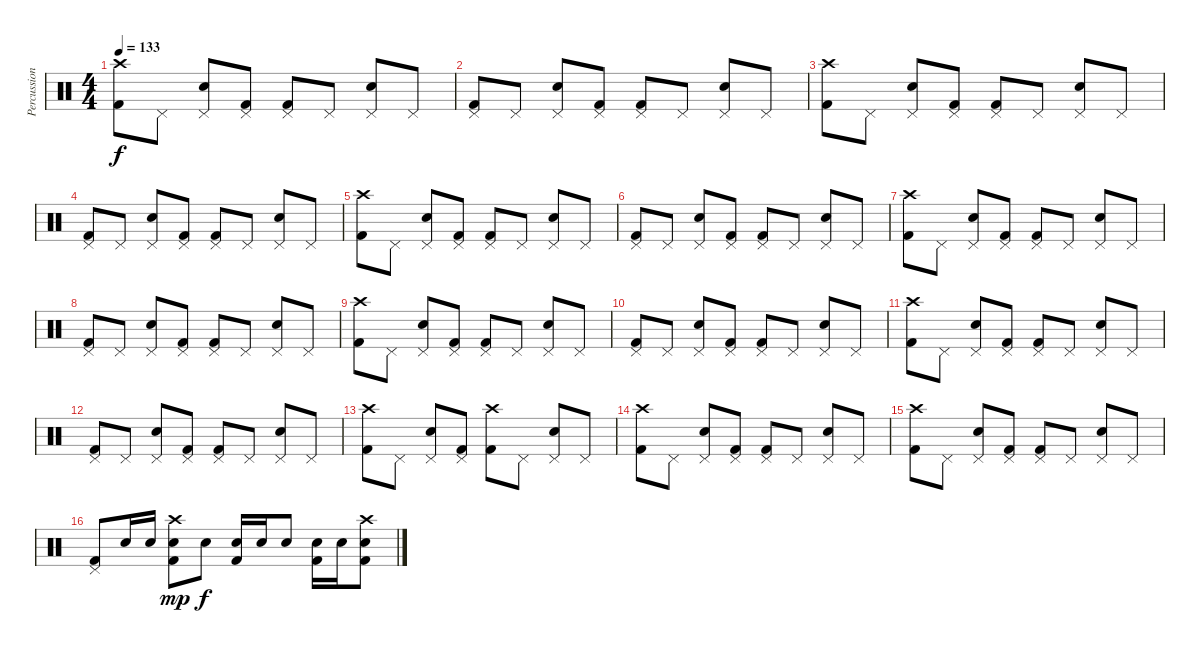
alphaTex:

\track ("Percussions" "Percussion") {instrument percussion}
\staff {score}
\articulation defaults
\ts (4 4)
\tempo 133
\clef neutral
\ks c
("Crash high (hit)" "Kick (hit) 2").8{dy f} "Pedal Hi-Hat (hit)".8 ("Pedal Hi-Hat (hit)" "Snare (hit) 2").8 ("Pedal Hi-Hat (hit)" "Kick (hit) 2").8 ("Pedal Hi-Hat (hit)" "Kick (hit) 2").8 "Pedal Hi-Hat (hit)".8 ("Pedal Hi-Hat (hit)" "Snare (hit) 2").8 "Pedal Hi-Hat (hit)".8 |
("Pedal Hi-Hat (hit)" "Kick (hit) 2").8 "Pedal Hi-Hat (hit)".8 ("Pedal Hi-Hat (hit)" "Snare (hit) 2").8 ("Pedal Hi-Hat (hit)" "Kick (hit) 2").8 ("Pedal Hi-Hat (hit)" "Kick (hit) 2").8 "Pedal Hi-Hat (hit)".8 ("Pedal Hi-Hat (hit)" "Snare (hit) 2").8 "Pedal Hi-Hat (hit)".8 |
("Crash high (hit)" "Kick (hit) 2").8 "Pedal Hi-Hat (hit)".8 ("Pedal Hi-Hat (hit)" "Snare (hit) 2").8 ("Pedal Hi-Hat (hit)" "Kick (hit) 2").8 ("Pedal Hi-Hat (hit)" "Kick (hit) 2").8 "Pedal Hi-Hat (hit)".8 ("Pedal Hi-Hat (hit)" "Snare (hit) 2").8 "Pedal Hi-Hat (hit)".8 |
("Pedal Hi-Hat (hit)" "Kick (hit) 2").8 "Pedal Hi-Hat (hit)".8 ("Pedal Hi-Hat (hit)" "Snare (hit) 2").8 ("Pedal Hi-Hat (hit)" "Kick (hit) 2").8 ("Pedal Hi-Hat (hit)" "Kick (hit) 2").8 "Pedal Hi-Hat (hit)".8 ("Pedal Hi-Hat (hit)" "Snare (hit) 2").8 "Pedal Hi-Hat (hit)".8 |
("Crash high (hit)" "Kick (hit) 2").8 "Pedal Hi-Hat (hit)".8 ("Pedal Hi-Hat (hit)" "Snare (hit) 2").8 ("Pedal Hi-Hat (hit)" "Kick (hit) 2").8 ("Pedal Hi-Hat (hit)" "Kick (hit) 2").8 "Pedal Hi-Hat (hit)".8 ("Pedal Hi-Hat (hit)" "Snare (hit) 2").8 "Pedal Hi-Hat (hit)".8 |
("Pedal Hi-Hat (hit)" "Kick (hit) 2").8 "Pedal Hi-Hat (hit)".8 ("Pedal Hi-Hat (hit)" "Snare (hit) 2").8 ("Pedal Hi-Hat (hit)" "Kick (hit) 2").8 ("Pedal Hi-Hat (hit)" "Kick (hit) 2").8 "Pedal Hi-Hat (hit)".8 ("Pedal Hi-Hat (hit)" "Snare (hit) 2").8 "Pedal Hi-Hat (hit)".8 |
("Crash high (hit)" "Kick (hit) 2").8 "Pedal Hi-Hat (hit)".8 ("Pedal Hi-Hat (hit)" "Snare (hit) 2").8 ("Pedal Hi-Hat (hit)" "Kick (hit) 2").8 ("Pedal Hi-Hat (hit)" "Kick (hit) 2").8 "Pedal Hi-Hat (hit)".8 ("Pedal Hi-Hat (hit)" "Snare (hit) 2").8 "Pedal Hi-Hat (hit)".8 |
("Pedal Hi-Hat (hit)" "Kick (hit) 2").8 "Pedal Hi-Hat (hit)".8 ("Pedal Hi-Hat (hit)" "Snare (hit) 2").8 ("Pedal Hi-Hat (hit)" "Kick (hit) 2").8 ("Pedal Hi-Hat (hit)" "Kick (hit) 2").8 "Pedal Hi-Hat (hit)".8 ("Pedal Hi-Hat (hit)" "Snare (hit) 2").8 "Pedal Hi-Hat (hit)".8 |
("Crash high (hit)" "Kick (hit) 2").8 "Pedal Hi-Hat (hit)".8 ("Pedal Hi-Hat (hit)" "Snare (hit) 2").8 ("Pedal Hi-Hat (hit)" "Kick (hit) 2").8 ("Pedal Hi-Hat (hit)" "Kick (hit) 2").8 "Pedal Hi-Hat (hit)".8 ("Pedal Hi-Hat (hit)" "Snare (hit) 2").8 "Pedal Hi-Hat (hit)".8 |
("Pedal Hi-Hat (hit)" "Kick (hit) 2").8 "Pedal Hi-Hat (hit)".8 ("Pedal Hi-Hat (hit)" "Snare (hit) 2").8 ("Pedal Hi-Hat (hit)" "Kick (hit) 2").8 ("Pedal Hi-Hat (hit)" "Kick (hit) 2").8 "Pedal Hi-Hat (hit)".8 ("Pedal Hi-Hat (hit)" "Snare (hit) 2").8 "Pedal Hi-Hat (hit)".8 |
("Crash high (hit)" "Kick (hit) 2").8 "Pedal Hi-Hat (hit)".8 ("Pedal Hi-Hat (hit)" "Snare (hit) 2").8 ("Pedal Hi-Hat (hit)" "Kick (hit) 2").8 ("Pedal Hi-Hat (hit)" "Kick (hit) 2").8 "Pedal Hi-Hat (hit)".8 ("Pedal Hi-Hat (hit)" "Snare (hit) 2").8 "Pedal Hi-Hat (hit)".8 |
("Pedal Hi-Hat (hit)" "Kick (hit) 2").8 "Pedal Hi-Hat (hit)".8 ("Pedal Hi-Hat (hit)" "Snare (hit) 2").8 ("Pedal Hi-Hat (hit)" "Kick (hit) 2").8 ("Pedal Hi-Hat (hit)" "Kick (hit) 2").8 "Pedal Hi-Hat (hit)".8 ("Pedal Hi-Hat (hit)" "Snare (hit) 2").8 "Pedal Hi-Hat (hit)".8 |
("Crash high (hit)" "Kick (hit) 2").8 "Pedal Hi-Hat (hit)".8 ("Pedal Hi-Hat (hit)" "Snare (hit) 2").8 ("Pedal Hi-Hat (hit)" "Kick (hit) 2").8 ("Crash high (hit)" "Kick (hit) 2").8 "Pedal Hi-Hat (hit)".8 ("Pedal Hi-Hat (hit)" "Snare (hit) 2").8 "Pedal Hi-Hat (hit)".8 |
("Crash high (hit)" "Kick (hit) 2").8 "Pedal Hi-Hat (hit)".8 ("Pedal Hi-Hat (hit)" "Snare (hit) 2").8 ("Pedal Hi-Hat (hit)" "Kick (hit) 2").8 ("Pedal Hi-Hat (hit)" "Kick (hit) 2").8 "Pedal Hi-Hat (hit)".8 ("Pedal Hi-Hat (hit)" "Snare (hit) 2").8 "Pedal Hi-Hat (hit)".8 |
("Crash high (hit)" "Kick (hit) 2").8 "Pedal Hi-Hat (hit)".8 ("Pedal Hi-Hat (hit)" "Snare (hit) 2").8 ("Pedal Hi-Hat (hit)" "Kick (hit) 2").8 ("Pedal Hi-Hat (hit)" "Kick (hit) 2").8 "Pedal Hi-Hat (hit)".8 ("Pedal Hi-Hat (hit)" "Snare (hit) 2").8 "Pedal Hi-Hat (hit)".8 |
("Pedal Hi-Hat (hit)" "Kick (hit) 2").8 "Snare (hit) 2".16 "Snare (hit) 2".16 ("Crash high (hit)" "Snare (hit) 2" "Kick (hit) 2").8{dy mp} "Snare (hit) 2".8{dy f} ("Snare (hit) 2" "Kick (hit) 2").16 "Snare (hit) 2".16 "Snare (hit) 2".8 ("Snare (hit) 2" "Kick (hit) 2").16 "Snare (hit) 2".16 ("Crash high (hit)" "Snare (hit) 2" "Kick (hit) 2").8
